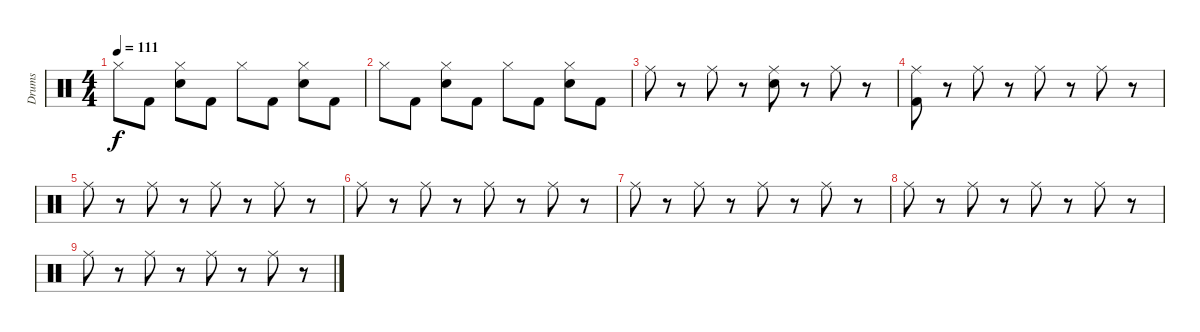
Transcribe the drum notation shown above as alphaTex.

\track ("Drums" "Drums") {instrument percussion}
\staff {score}
\articulation defaults
\ts (4 4)
\tempo 111
\clef neutral
\ks c "Hi-Hat (closed)".8{dy f} "Kick (hit) 2".8
("Hi-Hat (closed)" "Snare (hit) 2").8 "Kick (hit) 2".8 "Hi-Hat (closed)".8 "Kick (hit) 2".8 ("Hi-Hat (closed)" "Snare (hit) 2").8 "Kick (hit) 2".8 |
"Hi-Hat (closed)".8 "Kick (hit) 2".8 ("Hi-Hat (closed)" "Snare (hit) 2").8 "Kick (hit) 2".8 "Hi-Hat (closed)".8 "Kick (hit) 2".8 ("Hi-Hat (closed)" "Snare (hit) 2").8 "Kick (hit) 2".8 |
"Ride (middle)".8 r.8 "Ride (middle)".8 r.8 ("Ride (middle)" "Snare (hit) 2").8 r.8 "Ride (middle)".8 r.8 |
("Ride (middle)" "Kick (hit) 2").8 r.8 "Ride (middle)".8 r.8 "Ride (middle)".8 r.8 "Ride (middle)".8 r.8 |
"Ride (middle)".8 r.8 "Ride (middle)".8 r.8 "Ride (middle)".8 r.8 "Ride (middle)".8 r.8 |
"Ride (middle)".8 r.8 "Ride (middle)".8 r.8 "Ride (middle)".8 r.8 "Ride (middle)".8 r.8 |
"Ride (middle)".8 r.8 "Ride (middle)".8 r.8 "Ride (middle)".8 r.8 "Ride (middle)".8 r.8 |
"Ride (middle)".8 r.8 "Ride (middle)".8 r.8 "Ride (middle)".8 r.8 "Ride (middle)".8 r.8 |
"Ride (middle)".8 r.8 "Ride (middle)".8 r.8 "Ride (middle)".8 r.8 "Ride (middle)".8 r.8
